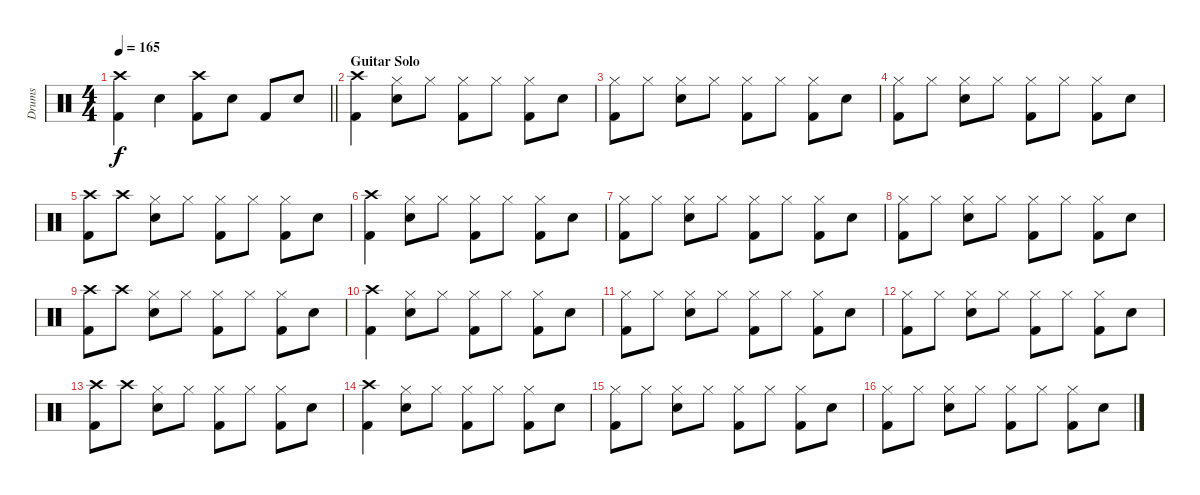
\track ("Drums" "Drums") {instrument percussion}
\staff {score}
\articulation defaults
\ts (4 4)
\tempo 165
\clef neutral
\barLineRight lightlight
\ks c
("Crash high (hit)" "Kick (hit) 2").4{dy f} "Snare (hit) 2".4 ("Crash high (hit)" "Kick (hit) 2").8 "Snare (hit) 2".8 "Kick (hit) 2".8 "Snare (hit) 2".8 |
\section ("" "Guitar Solo")
("Crash high (hit)" "Kick (hit) 2").4 ("Hi-Hat (closed)" "Snare (hit) 2").8 "Hi-Hat (closed)".8 ("Hi-Hat (closed)" "Kick (hit) 2").8 "Hi-Hat (closed)".8 ("Hi-Hat (closed)" "Kick (hit) 2").8 "Snare (hit) 2".8 |
("Hi-Hat (closed)" "Kick (hit) 2").8 "Hi-Hat (closed)".8 ("Hi-Hat (closed)" "Snare (hit) 2").8 "Hi-Hat (closed)".8 ("Hi-Hat (closed)" "Kick (hit) 2").8 "Hi-Hat (closed)".8 ("Hi-Hat (closed)" "Kick (hit) 2").8 "Snare (hit) 2".8 |
("Hi-Hat (closed)" "Kick (hit) 2").8 "Hi-Hat (closed)".8 ("Hi-Hat (closed)" "Snare (hit) 2").8 "Hi-Hat (closed)".8 ("Hi-Hat (closed)" "Kick (hit) 2").8 "Hi-Hat (closed)".8 ("Hi-Hat (closed)" "Kick (hit) 2").8 "Snare (hit) 2".8 |
("Crash high (hit)" "Kick (hit) 2").8 "Crash high (hit)".8 ("Hi-Hat (closed)" "Snare (hit) 2").8 "Hi-Hat (closed)".8 ("Hi-Hat (closed)" "Kick (hit) 2").8 "Hi-Hat (closed)".8 ("Hi-Hat (closed)" "Kick (hit) 2").8 "Snare (hit) 2".8 |
("Crash high (hit)" "Kick (hit) 2").4 ("Hi-Hat (closed)" "Snare (hit) 2").8 "Hi-Hat (closed)".8 ("Hi-Hat (closed)" "Kick (hit) 2").8 "Hi-Hat (closed)".8 ("Hi-Hat (closed)" "Kick (hit) 2").8 "Snare (hit) 2".8 |
("Hi-Hat (closed)" "Kick (hit) 2").8 "Hi-Hat (closed)".8 ("Hi-Hat (closed)" "Snare (hit) 2").8 "Hi-Hat (closed)".8 ("Hi-Hat (closed)" "Kick (hit) 2").8 "Hi-Hat (closed)".8 ("Hi-Hat (closed)" "Kick (hit) 2").8 "Snare (hit) 2".8 |
("Hi-Hat (closed)" "Kick (hit) 2").8 "Hi-Hat (closed)".8 ("Hi-Hat (closed)" "Snare (hit) 2").8 "Hi-Hat (closed)".8 ("Hi-Hat (closed)" "Kick (hit) 2").8 "Hi-Hat (closed)".8 ("Hi-Hat (closed)" "Kick (hit) 2").8 "Snare (hit) 2".8 |
("Crash high (hit)" "Kick (hit) 2").8 "Crash high (hit)".8 ("Hi-Hat (closed)" "Snare (hit) 2").8 "Hi-Hat (closed)".8 ("Hi-Hat (closed)" "Kick (hit) 2").8 "Hi-Hat (closed)".8 ("Hi-Hat (closed)" "Kick (hit) 2").8 "Snare (hit) 2".8 |
("Crash high (hit)" "Kick (hit) 2").4 ("Hi-Hat (closed)" "Snare (hit) 2").8 "Hi-Hat (closed)".8 ("Hi-Hat (closed)" "Kick (hit) 2").8 "Hi-Hat (closed)".8 ("Hi-Hat (closed)" "Kick (hit) 2").8 "Snare (hit) 2".8 |
("Hi-Hat (closed)" "Kick (hit) 2").8 "Hi-Hat (closed)".8 ("Hi-Hat (closed)" "Snare (hit) 2").8 "Hi-Hat (closed)".8 ("Hi-Hat (closed)" "Kick (hit) 2").8 "Hi-Hat (closed)".8 ("Hi-Hat (closed)" "Kick (hit) 2").8 "Snare (hit) 2".8 |
("Hi-Hat (closed)" "Kick (hit) 2").8 "Hi-Hat (closed)".8 ("Hi-Hat (closed)" "Snare (hit) 2").8 "Hi-Hat (closed)".8 ("Hi-Hat (closed)" "Kick (hit) 2").8 "Hi-Hat (closed)".8 ("Hi-Hat (closed)" "Kick (hit) 2").8 "Snare (hit) 2".8 |
("Crash high (hit)" "Kick (hit) 2").8 "Crash high (hit)".8 ("Hi-Hat (closed)" "Snare (hit) 2").8 "Hi-Hat (closed)".8 ("Hi-Hat (closed)" "Kick (hit) 2").8 "Hi-Hat (closed)".8 ("Hi-Hat (closed)" "Kick (hit) 2").8 "Snare (hit) 2".8 |
("Crash high (hit)" "Kick (hit) 2").4 ("Hi-Hat (closed)" "Snare (hit) 2").8 "Hi-Hat (closed)".8 ("Hi-Hat (closed)" "Kick (hit) 2").8 "Hi-Hat (closed)".8 ("Hi-Hat (closed)" "Kick (hit) 2").8 "Snare (hit) 2".8 |
("Hi-Hat (closed)" "Kick (hit) 2").8 "Hi-Hat (closed)".8 ("Hi-Hat (closed)" "Snare (hit) 2").8 "Hi-Hat (closed)".8 ("Hi-Hat (closed)" "Kick (hit) 2").8 "Hi-Hat (closed)".8 ("Hi-Hat (closed)" "Kick (hit) 2").8 "Snare (hit) 2".8 |
("Hi-Hat (closed)" "Kick (hit) 2").8 "Hi-Hat (closed)".8 ("Hi-Hat (closed)" "Snare (hit) 2").8 "Hi-Hat (closed)".8 ("Hi-Hat (closed)" "Kick (hit) 2").8 "Hi-Hat (closed)".8 ("Hi-Hat (closed)" "Kick (hit) 2").8 "Snare (hit) 2".8
